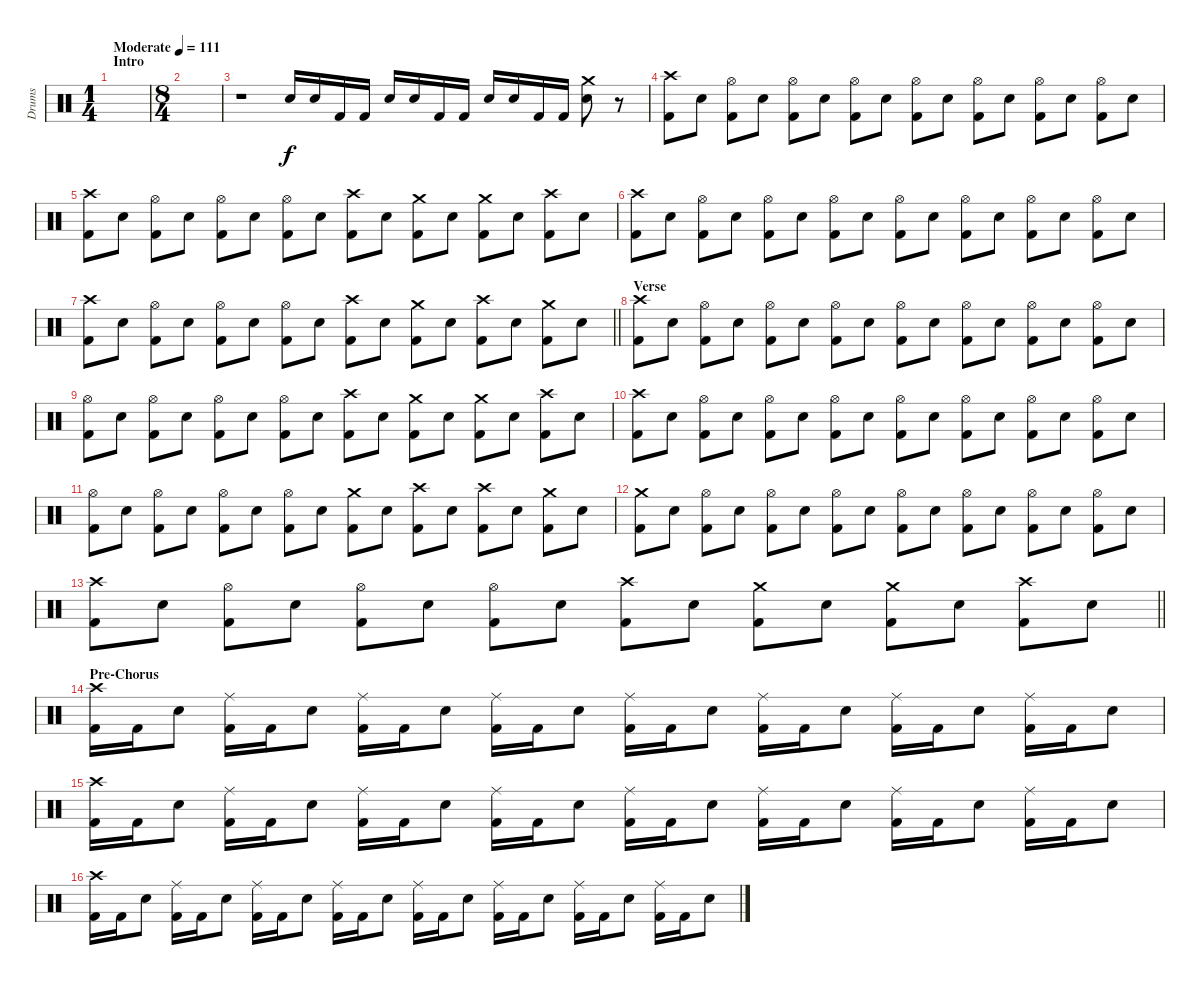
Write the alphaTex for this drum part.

\track ("Drums" "Drums") {instrument percussion}
\staff {score}
\articulation defaults
\ts (1 4)
\section ("" "Intro")
\tempo (111 "Moderate")
\tempo 213
\tempo (111 "Moderate")
\clef neutral
\ks c
|
\ts (8 4)
|
r.1 "Snare (hit) 2".16 "Snare (hit) 2".16 "Kick (hit) 2".16 "Kick (hit) 2".16 "Snare (hit) 2".16 "Snare (hit) 2".16 "Kick (hit) 2".16 "Kick (hit) 2".16 "Snare (hit) 2".16 "Snare (hit) 2".16 "Kick (hit) 2".16 "Kick (hit) 2".16 ("Crash medium (hit)" "Snare (hit) 2").8 r.8 |
("Crash high (hit)" "Kick (hit) 2").8 "Snare (hit) 2".8 ("Hi-Hat (open)" "Kick (hit) 2").8 "Snare (hit) 2".8 ("Hi-Hat (open)" "Kick (hit) 2").8 "Snare (hit) 2".8 ("Hi-Hat (open)" "Kick (hit) 2").8 "Snare (hit) 2".8 ("Hi-Hat (open)" "Kick (hit) 2").8 "Snare (hit) 2".8 ("Hi-Hat (open)" "Kick (hit) 2").8 "Snare (hit) 2".8 ("Hi-Hat (open)" "Kick (hit) 2").8 "Snare (hit) 2".8 ("Hi-Hat (open)" "Kick (hit) 2").8 "Snare (hit) 2".8 |
("Crash high (hit)" "Kick (hit) 2").8 "Snare (hit) 2".8 ("Hi-Hat (open)" "Kick (hit) 2").8 "Snare (hit) 2".8 ("Hi-Hat (open)" "Kick (hit) 2").8 "Snare (hit) 2".8 ("Hi-Hat (open)" "Kick (hit) 2").8 "Snare (hit) 2".8 ("Crash high (hit)" "Kick (hit) 2").8 "Snare (hit) 2".8 ("Crash medium (hit)" "Kick (hit) 2").8 "Snare (hit) 2".8 ("Crash medium (hit)" "Kick (hit) 2").8 "Snare (hit) 2".8 ("Crash high (hit)" "Kick (hit) 2").8 "Snare (hit) 2".8 |
("Crash high (hit)" "Kick (hit) 2").8 "Snare (hit) 2".8 ("Hi-Hat (open)" "Kick (hit) 2").8 "Snare (hit) 2".8 ("Hi-Hat (open)" "Kick (hit) 2").8 "Snare (hit) 2".8 ("Hi-Hat (open)" "Kick (hit) 2").8 "Snare (hit) 2".8 ("Hi-Hat (open)" "Kick (hit) 2").8 "Snare (hit) 2".8 ("Hi-Hat (open)" "Kick (hit) 2").8 "Snare (hit) 2".8 ("Hi-Hat (open)" "Kick (hit) 2").8 "Snare (hit) 2".8 ("Hi-Hat (open)" "Kick (hit) 2").8 "Snare (hit) 2".8 |
\barLineRight lightlight
("Crash high (hit)" "Kick (hit) 2").8 "Snare (hit) 2".8 ("Hi-Hat (open)" "Kick (hit) 2").8 "Snare (hit) 2".8 ("Hi-Hat (open)" "Kick (hit) 2").8 "Snare (hit) 2".8 ("Hi-Hat (open)" "Kick (hit) 2").8 "Snare (hit) 2".8 ("Crash high (hit)" "Kick (hit) 2").8 "Snare (hit) 2".8 ("Crash medium (hit)" "Kick (hit) 2").8 "Snare (hit) 2".8 ("Crash high (hit)" "Kick (hit) 2").8 "Snare (hit) 2".8 ("Crash medium (hit)" "Kick (hit) 2").8 "Snare (hit) 2".8 |
\section ("" "Verse")
("Crash high (hit)" "Kick (hit) 2").8 "Snare (hit) 2".8 ("Hi-Hat (open)" "Kick (hit) 2").8 "Snare (hit) 2".8 ("Hi-Hat (open)" "Kick (hit) 2").8 "Snare (hit) 2".8 ("Hi-Hat (open)" "Kick (hit) 2").8 "Snare (hit) 2".8 ("Hi-Hat (open)" "Kick (hit) 2").8 "Snare (hit) 2".8 ("Hi-Hat (open)" "Kick (hit) 2").8 "Snare (hit) 2".8 ("Hi-Hat (open)" "Kick (hit) 2").8 "Snare (hit) 2".8 ("Hi-Hat (open)" "Kick (hit) 2").8 "Snare (hit) 2".8 |
("Hi-Hat (open)" "Kick (hit) 2").8 "Snare (hit) 2".8 ("Hi-Hat (open)" "Kick (hit) 2").8 "Snare (hit) 2".8 ("Hi-Hat (open)" "Kick (hit) 2").8 "Snare (hit) 2".8 ("Hi-Hat (open)" "Kick (hit) 2").8 "Snare (hit) 2".8 ("Crash high (hit)" "Kick (hit) 2").8 "Snare (hit) 2".8 ("Crash medium (hit)" "Kick (hit) 2").8 "Snare (hit) 2".8 ("Crash medium (hit)" "Kick (hit) 2").8 "Snare (hit) 2".8 ("Crash high (hit)" "Kick (hit) 2").8 "Snare (hit) 2".8 |
("Crash high (hit)" "Kick (hit) 2").8 "Snare (hit) 2".8 ("Hi-Hat (open)" "Kick (hit) 2").8 "Snare (hit) 2".8 ("Hi-Hat (open)" "Kick (hit) 2").8 "Snare (hit) 2".8 ("Hi-Hat (open)" "Kick (hit) 2").8 "Snare (hit) 2".8 ("Hi-Hat (open)" "Kick (hit) 2").8 "Snare (hit) 2".8 ("Hi-Hat (open)" "Kick (hit) 2").8 "Snare (hit) 2".8 ("Hi-Hat (open)" "Kick (hit) 2").8 "Snare (hit) 2".8 ("Hi-Hat (open)" "Kick (hit) 2").8 "Snare (hit) 2".8 |
("Hi-Hat (open)" "Kick (hit) 2").8 "Snare (hit) 2".8 ("Hi-Hat (open)" "Kick (hit) 2").8 "Snare (hit) 2".8 ("Hi-Hat (open)" "Kick (hit) 2").8 "Snare (hit) 2".8 ("Hi-Hat (open)" "Kick (hit) 2").8 "Snare (hit) 2".8 ("Crash medium (hit)" "Kick (hit) 2").8 "Snare (hit) 2".8 ("Crash high (hit)" "Kick (hit) 2").8 "Snare (hit) 2".8 ("Crash high (hit)" "Kick (hit) 2").8 "Snare (hit) 2".8 ("Crash medium (hit)" "Kick (hit) 2").8 "Snare (hit) 2".8 |
("Crash medium (hit)" "Kick (hit) 2").8 "Snare (hit) 2".8 ("Hi-Hat (open)" "Kick (hit) 2").8 "Snare (hit) 2".8 ("Hi-Hat (open)" "Kick (hit) 2").8 "Snare (hit) 2".8 ("Hi-Hat (open)" "Kick (hit) 2").8 "Snare (hit) 2".8 ("Hi-Hat (open)" "Kick (hit) 2").8 "Snare (hit) 2".8 ("Hi-Hat (open)" "Kick (hit) 2").8 "Snare (hit) 2".8 ("Hi-Hat (open)" "Kick (hit) 2").8 "Snare (hit) 2".8 ("Hi-Hat (open)" "Kick (hit) 2").8 "Snare (hit) 2".8 |
\barLineRight lightlight
("Crash high (hit)" "Kick (hit) 2").8 "Snare (hit) 2".8 ("Hi-Hat (open)" "Kick (hit) 2").8 "Snare (hit) 2".8 ("Hi-Hat (open)" "Kick (hit) 2").8 "Snare (hit) 2".8 ("Hi-Hat (open)" "Kick (hit) 2").8 "Snare (hit) 2".8 ("Crash high (hit)" "Kick (hit) 2").8 "Snare (hit) 2".8 ("Crash medium (hit)" "Kick (hit) 2").8 "Snare (hit) 2".8 ("Crash medium (hit)" "Kick (hit) 2").8 "Snare (hit) 2".8 ("Crash high (hit)" "Kick (hit) 2").8 "Snare (hit) 2".8 |
\section ("" "Pre-Chorus")
("Crash high (hit)" "Kick (hit) 2").16 "Kick (hit) 2".16 "Snare (hit) 2".8 ("Ride (middle)" "Kick (hit) 2").16 "Kick (hit) 2".16 "Snare (hit) 2".8 ("Ride (middle)" "Kick (hit) 2").16 "Kick (hit) 2".16 "Snare (hit) 2".8 ("Ride (middle)" "Kick (hit) 2").16 "Kick (hit) 2".16 "Snare (hit) 2".8 ("Ride (middle)" "Kick (hit) 2").16 "Kick (hit) 2".16 "Snare (hit) 2".8 ("Ride (middle)" "Kick (hit) 2").16 "Kick (hit) 2".16 "Snare (hit) 2".8 ("Ride (middle)" "Kick (hit) 2").16 "Kick (hit) 2".16 "Snare (hit) 2".8 ("Ride (middle)" "Kick (hit) 2").16 "Kick (hit) 2".16 "Snare (hit) 2".8 |
("Crash high (hit)" "Kick (hit) 2").16 "Kick (hit) 2".16 "Snare (hit) 2".8 ("Ride (middle)" "Kick (hit) 2").16 "Kick (hit) 2".16 "Snare (hit) 2".8 ("Ride (middle)" "Kick (hit) 2").16 "Kick (hit) 2".16 "Snare (hit) 2".8 ("Ride (middle)" "Kick (hit) 2").16 "Kick (hit) 2".16 "Snare (hit) 2".8 ("Ride (middle)" "Kick (hit) 2").16 "Kick (hit) 2".16 "Snare (hit) 2".8 ("Ride (middle)" "Kick (hit) 2").16 "Kick (hit) 2".16 "Snare (hit) 2".8 ("Ride (middle)" "Kick (hit) 2").16 "Kick (hit) 2".16 "Snare (hit) 2".8 ("Ride (middle)" "Kick (hit) 2").16 "Kick (hit) 2".16 "Snare (hit) 2".8 |
("Crash high (hit)" "Kick (hit) 2").16 "Kick (hit) 2".16 "Snare (hit) 2".8 ("Ride (middle)" "Kick (hit) 2").16 "Kick (hit) 2".16 "Snare (hit) 2".8 ("Ride (middle)" "Kick (hit) 2").16 "Kick (hit) 2".16 "Snare (hit) 2".8 ("Ride (middle)" "Kick (hit) 2").16 "Kick (hit) 2".16 "Snare (hit) 2".8 ("Ride (middle)" "Kick (hit) 2").16 "Kick (hit) 2".16 "Snare (hit) 2".8 ("Ride (middle)" "Kick (hit) 2").16 "Kick (hit) 2".16 "Snare (hit) 2".8 ("Ride (middle)" "Kick (hit) 2").16 "Kick (hit) 2".16 "Snare (hit) 2".8 ("Ride (middle)" "Kick (hit) 2").16 "Kick (hit) 2".16 "Snare (hit) 2".8
